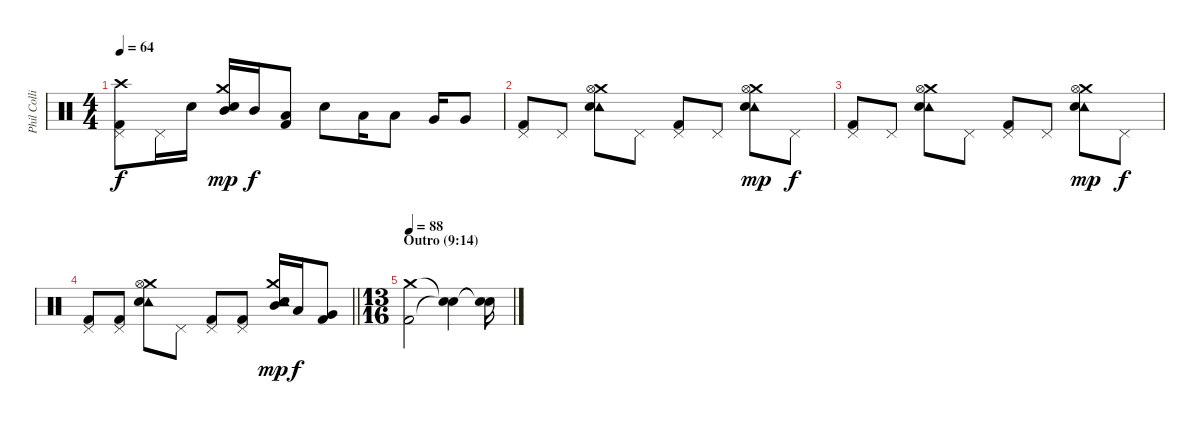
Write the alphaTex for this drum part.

\track ("Phil Collins (drums)" "Phil Colli") {instrument percussion}
\staff {score}
\articulation defaults
\ts (4 4)
\tempo 64
\clef neutral
\ks c
("Crash high (hit)" "Pedal Hi-Hat (hit)" "Kick (hit) 2").8{dy f} "Pedal Hi-Hat (hit)".16 "Electric Snare (hit)".16 ("Crash medium (hit)" "Mid Tom (hit)" "Electric Snare (hit)").16{dy mp} "Mid Tom (hit)".16{dy f} ("Low Tom (hit)" "Kick (hit) 2").8 "Electric Snare (hit)".8 "Low Tom (hit)".16 "Low Tom (hit)".8 "Very Low Tom (hit)".16 "Very Low Tom (hit)".8 |
("Pedal Hi-Hat (hit)" "Kick (hit) 2").8 "Pedal Hi-Hat (hit)".8 ("Tambourine (hit)" "Crash medium (hit)" "Hi-Hat (open)" "Electric Snare (hit)").8 "Pedal Hi-Hat (hit)".8 ("Pedal Hi-Hat (hit)" "Kick (hit) 2").8 "Pedal Hi-Hat (hit)".8 ("Tambourine (hit)" "Crash medium (hit)" "Hi-Hat (open)" "Electric Snare (hit)").8{dy mp} "Pedal Hi-Hat (hit)".8{dy f} |
("Pedal Hi-Hat (hit)" "Kick (hit) 2").8 "Pedal Hi-Hat (hit)".8 ("Tambourine (hit)" "Crash medium (hit)" "Hi-Hat (open)" "Electric Snare (hit)").8 "Pedal Hi-Hat (hit)".8 ("Pedal Hi-Hat (hit)" "Kick (hit) 2").8 "Pedal Hi-Hat (hit)".8 ("Tambourine (hit)" "Crash medium (hit)" "Hi-Hat (open)" "Electric Snare (hit)").8{dy mp} "Pedal Hi-Hat (hit)".8{dy f} |
\barLineRight lightlight
("Pedal Hi-Hat (hit)" "Kick (hit) 2").8 ("Pedal Hi-Hat (hit)" "Kick (hit) 2").8 ("Tambourine (hit)" "Crash medium (hit)" "Hi-Hat (open)" "Electric Snare (hit)").8 "Pedal Hi-Hat (hit)".8 ("Pedal Hi-Hat (hit)" "Kick (hit) 2").8 ("Pedal Hi-Hat (hit)" "Kick (hit) 2").8 ("Tambourine (hit)" "Crash medium (hit)" "Mid Tom (hit)" "Electric Snare (hit)").16{dy mp} "Low Tom (hit)".16{dy f} ("Very Low Tom (hit)" "Kick (hit) 2").8 |
\ts (13 16)
\section ("" "Outro (9:14)")
\tempo 88
("Crash medium (hit)" "Kick (hit) 2").2 ("Snare (hit)"{t} "Snare (hit)"{t}).4 ("Snare (hit)"{t} "Snare (hit)"{t}).16
